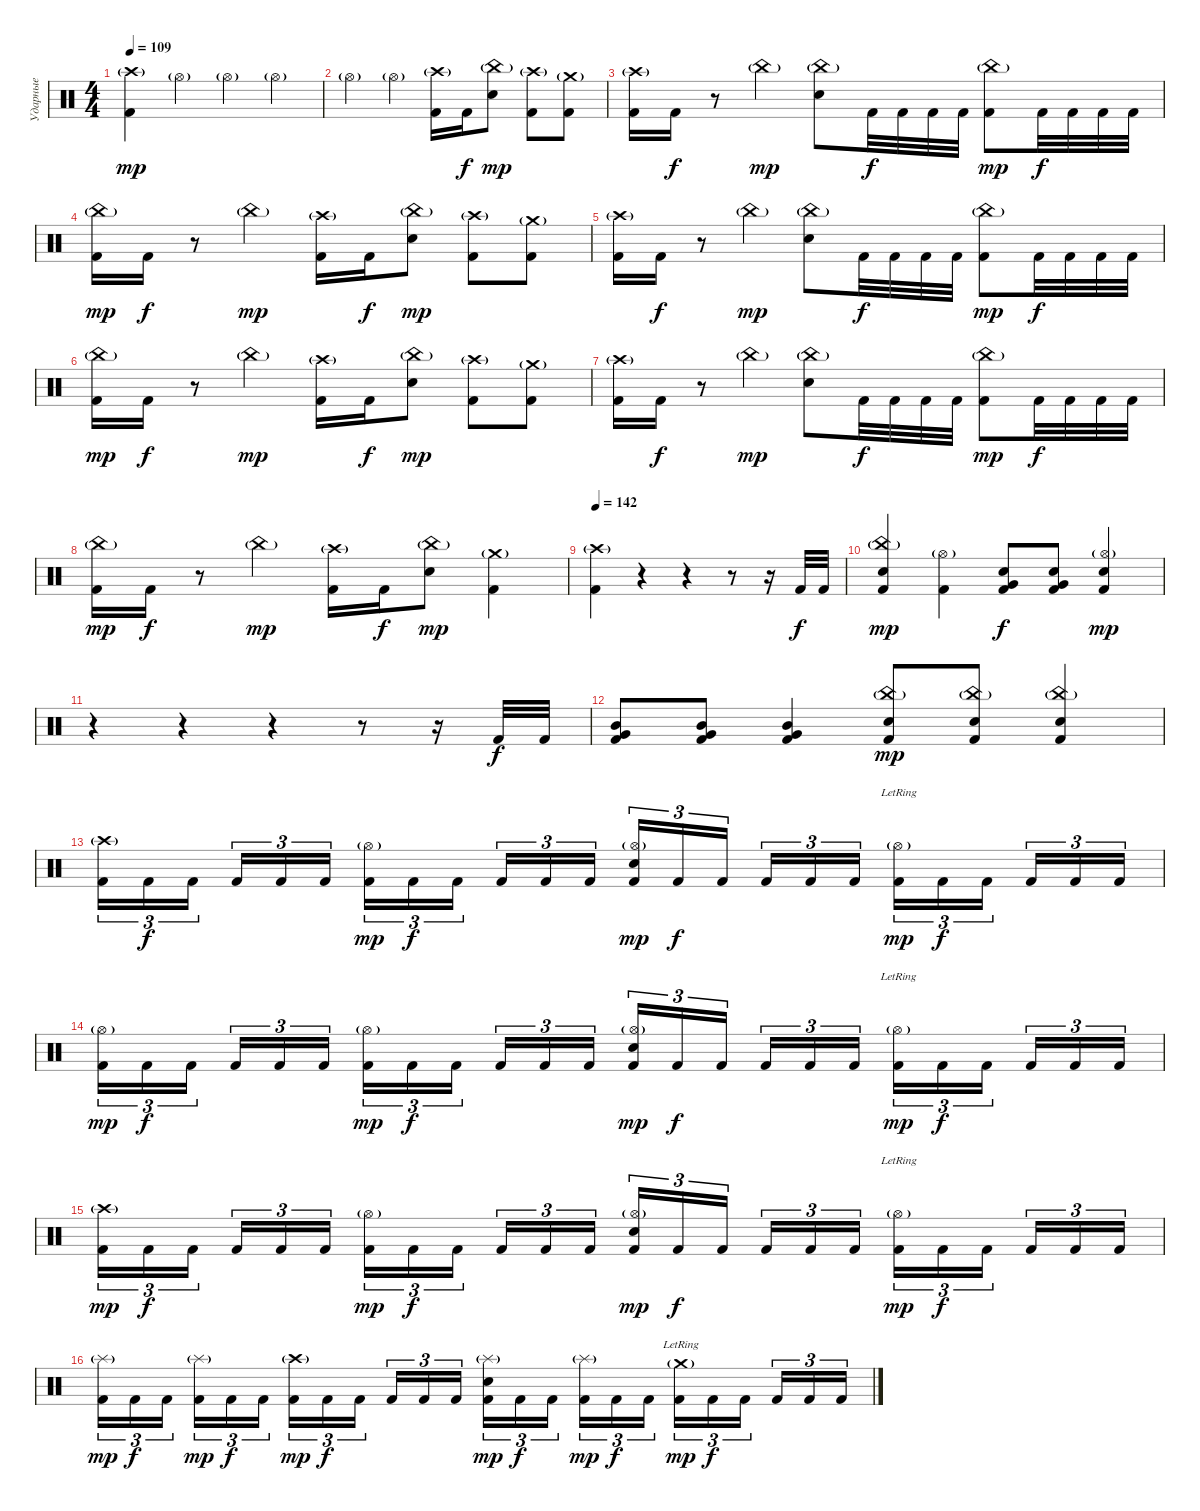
\track ("Ударные" "Ударные") {instrument percussion}
\staff {score}
\articulation defaults
\ts (4 4)
\tempo 109
\clef neutral
\ks c
("Crash high (hit)"{g} "Kick (hit) 2").4{dy mp} "Hi-Hat (open)"{g}.4 "Hi-Hat (open)"{g}.4 "Hi-Hat (open)"{g}.4 |
"Hi-Hat (open)"{g}.4 "Hi-Hat (open)"{g}.4 ("Crash high (hit)"{g} "Kick (hit) 2").16 "Kick (hit) 2".16{dy f} ("China (hit)"{g} "Electric Snare (hit)").8{dy mp} ("Crash high (hit)"{g} "Kick (hit) 2").8 ("Crash medium (hit)"{g} "Kick (hit) 2").8 |
("Crash high (hit)"{g} "Kick (hit) 2").16 "Kick (hit) 2".16{dy f} r.8 "China (hit)"{g}.4{dy mp} ("China (hit)"{g} "Electric Snare (hit)").8 "Kick (hit) 2".32{dy f} "Kick (hit) 2".32 "Kick (hit) 2".32 "Kick (hit) 2".32 ("China (hit)"{g} "Kick (hit) 2").8{dy mp} "Kick (hit) 2".32{dy f} "Kick (hit) 2".32 "Kick (hit) 2".32 "Kick (hit) 2".32 |
("China (hit)"{g} "Kick (hit) 2").16{dy mp} "Kick (hit) 2".16{dy f} r.8 "China (hit)"{g}.4{dy mp} ("Crash high (hit)"{g} "Kick (hit) 2").16 "Kick (hit) 2".16{dy f} ("China (hit)"{g} "Electric Snare (hit)").8{dy mp} ("Crash high (hit)"{g} "Kick (hit) 2").8 ("Crash medium (hit)"{g} "Kick (hit) 2").8 |
("Crash high (hit)"{g} "Kick (hit) 2").16 "Kick (hit) 2".16{dy f} r.8 "China (hit)"{g}.4{dy mp} ("China (hit)"{g} "Electric Snare (hit)").8 "Kick (hit) 2".32{dy f} "Kick (hit) 2".32 "Kick (hit) 2".32 "Kick (hit) 2".32 ("China (hit)"{g} "Kick (hit) 2").8{dy mp} "Kick (hit) 2".32{dy f} "Kick (hit) 2".32 "Kick (hit) 2".32 "Kick (hit) 2".32 |
("China (hit)"{g} "Kick (hit) 2").16{dy mp} "Kick (hit) 2".16{dy f} r.8 "China (hit)"{g}.4{dy mp} ("Crash high (hit)"{g} "Kick (hit) 2").16 "Kick (hit) 2".16{dy f} ("China (hit)"{g} "Electric Snare (hit)").8{dy mp} ("Crash high (hit)"{g} "Kick (hit) 2").8 ("Crash medium (hit)"{g} "Kick (hit) 2").8 |
("Crash high (hit)"{g} "Kick (hit) 2").16 "Kick (hit) 2".16{dy f} r.8 "China (hit)"{g}.4{dy mp} ("China (hit)"{g} "Electric Snare (hit)").8 "Kick (hit) 2".32{dy f} "Kick (hit) 2".32 "Kick (hit) 2".32 "Kick (hit) 2".32 ("China (hit)"{g} "Kick (hit) 2").8{dy mp} "Kick (hit) 2".32{dy f} "Kick (hit) 2".32 "Kick (hit) 2".32 "Kick (hit) 2".32 |
("China (hit)"{g} "Kick (hit) 2").16{dy mp} "Kick (hit) 2".16{dy f} r.8 "China (hit)"{g}.4{dy mp} ("Crash high (hit)"{g} "Kick (hit) 2").16 "Kick (hit) 2".16{dy f} ("China (hit)"{g} "Electric Snare (hit)").8{dy mp} ("Crash medium (hit)"{g} "Kick (hit) 2").4 |
\tempo 142
("Crash high (hit)"{g} "Kick (hit) 2").4 r.4{volume 0} r.4 r.8 r.16 "Kick (hit) 2".32{dy f volume 16} "Kick (hit) 2".32 |
("China (hit)"{g} "Electric Snare (hit)" "Kick (hit) 2").4{dy mp} ("Hi-Hat (open)"{g} "Kick (hit) 2").4 ("Very Low Tom (hit)" "Electric Snare (hit)" "Kick (hit) 2").8{dy f} ("Very Low Tom (hit)" "Electric Snare (hit)" "Kick (hit) 2").8 ("Hi-Hat (open)"{g} "Electric Snare (hit)" "Kick (hit) 2").4{dy mp} |
r.4 r.4 r.4 r.8 r.16 "Kick (hit) 2".32{dy f} "Kick (hit) 2".32 |
("Very Low Tom (hit)" "Mid Tom (hit)" "Kick (hit) 2").8 ("Very Low Tom (hit)" "Mid Tom (hit)" "Kick (hit) 2").8 ("Very Low Tom (hit)" "Mid Tom (hit)" "Kick (hit) 2").4 ("China (hit)"{g} "Electric Snare (hit)" "Kick (hit) 2").8{dy mp} ("China (hit)"{g} "Electric Snare (hit)" "Kick (hit) 2").8 ("China (hit)"{g} "Electric Snare (hit)" "Kick (hit) 2").4 |
("Crash high (hit)"{g} "Kick (hit) 2").16{tu (3 2)} "Kick (hit) 2".16{tu (3 2) dy f} "Kick (hit) 2".16{tu (3 2)} "Kick (hit) 2".16{tu (3 2)} "Kick (hit) 2".16{tu (3 2)} "Kick (hit) 2".16{tu (3 2)} ("Hi-Hat (open)"{g} "Kick (hit) 2").16{tu (3 2) dy mp} "Kick (hit) 2".16{tu (3 2) dy f} "Kick (hit) 2".16{tu (3 2)} "Kick (hit) 2".16{tu (3 2)} "Kick (hit) 2".16{tu (3 2)} "Kick (hit) 2".16{tu (3 2)} ("Hi-Hat (open)"{g} "Electric Snare (hit)" "Kick (hit) 2").16{tu (3 2) dy mp} "Kick (hit) 2".16{tu (3 2) dy f} "Kick (hit) 2".16{tu (3 2)} "Kick (hit) 2".16{tu (3 2)} "Kick (hit) 2".16{tu (3 2)} "Kick (hit) 2".16{tu (3 2)} ("Hi-Hat (open)"{g lr} "Kick (hit) 2").16{tu (3 2) dy mp} "Kick (hit) 2".16{tu (3 2) dy f} "Kick (hit) 2".16{tu (3 2)} "Kick (hit) 2".16{tu (3 2)} "Kick (hit) 2".16{tu (3 2)} "Kick (hit) 2".16{tu (3 2)} |
("Hi-Hat (open)"{g} "Kick (hit) 2").16{tu (3 2) dy mp} "Kick (hit) 2".16{tu (3 2) dy f} "Kick (hit) 2".16{tu (3 2)} "Kick (hit) 2".16{tu (3 2)} "Kick (hit) 2".16{tu (3 2)} "Kick (hit) 2".16{tu (3 2)} ("Hi-Hat (open)"{g} "Kick (hit) 2").16{tu (3 2) dy mp} "Kick (hit) 2".16{tu (3 2) dy f} "Kick (hit) 2".16{tu (3 2)} "Kick (hit) 2".16{tu (3 2)} "Kick (hit) 2".16{tu (3 2)} "Kick (hit) 2".16{tu (3 2)} ("Hi-Hat (open)"{g} "Electric Snare (hit)" "Kick (hit) 2").16{tu (3 2) dy mp} "Kick (hit) 2".16{tu (3 2) dy f} "Kick (hit) 2".16{tu (3 2)} "Kick (hit) 2".16{tu (3 2)} "Kick (hit) 2".16{tu (3 2)} "Kick (hit) 2".16{tu (3 2)} ("Hi-Hat (open)"{g lr} "Kick (hit) 2").16{tu (3 2) dy mp} "Kick (hit) 2".16{tu (3 2) dy f} "Kick (hit) 2".16{tu (3 2)} "Kick (hit) 2".16{tu (3 2)} "Kick (hit) 2".16{tu (3 2)} "Kick (hit) 2".16{tu (3 2)} |
("Crash high (hit)"{g} "Kick (hit) 2").16{tu (3 2) dy mp} "Kick (hit) 2".16{tu (3 2) dy f} "Kick (hit) 2".16{tu (3 2)} "Kick (hit) 2".16{tu (3 2)} "Kick (hit) 2".16{tu (3 2)} "Kick (hit) 2".16{tu (3 2)} ("Hi-Hat (open)"{g} "Kick (hit) 2").16{tu (3 2) dy mp} "Kick (hit) 2".16{tu (3 2) dy f} "Kick (hit) 2".16{tu (3 2)} "Kick (hit) 2".16{tu (3 2)} "Kick (hit) 2".16{tu (3 2)} "Kick (hit) 2".16{tu (3 2)} ("Hi-Hat (open)"{g} "Electric Snare (hit)" "Kick (hit) 2").16{tu (3 2) dy mp} "Kick (hit) 2".16{tu (3 2) dy f} "Kick (hit) 2".16{tu (3 2)} "Kick (hit) 2".16{tu (3 2)} "Kick (hit) 2".16{tu (3 2)} "Kick (hit) 2".16{tu (3 2)} ("Hi-Hat (open)"{g lr} "Kick (hit) 2").16{tu (3 2) dy mp} "Kick (hit) 2".16{tu (3 2) dy f} "Kick (hit) 2".16{tu (3 2)} "Kick (hit) 2".16{tu (3 2)} "Kick (hit) 2".16{tu (3 2)} "Kick (hit) 2".16{tu (3 2)} |
("Splash (hit)"{g} "Kick (hit) 2").16{tu (3 2) dy mp} "Kick (hit) 2".16{tu (3 2) dy f} "Kick (hit) 2".16{tu (3 2)} ("Splash (hit)"{g} "Kick (hit) 2").16{tu (3 2) dy mp} "Kick (hit) 2".16{tu (3 2) dy f} "Kick (hit) 2".16{tu (3 2)} ("Crash high (hit)"{g} "Kick (hit) 2").16{tu (3 2) dy mp} "Kick (hit) 2".16{tu (3 2) dy f} "Kick (hit) 2".16{tu (3 2)} "Kick (hit) 2".16{tu (3 2)} "Kick (hit) 2".16{tu (3 2)} "Kick (hit) 2".16{tu (3 2)} ("Splash (hit)"{g} "Electric Snare (hit)" "Kick (hit) 2").16{tu (3 2) dy mp} "Kick (hit) 2".16{tu (3 2) dy f} "Kick (hit) 2".16{tu (3 2)} ("Splash (hit)"{g} "Kick (hit) 2").16{tu (3 2) dy mp} "Kick (hit) 2".16{tu (3 2) dy f} "Kick (hit) 2".16{tu (3 2)} ("Crash medium (hit)"{g lr} "Kick (hit) 2").16{tu (3 2) dy mp} "Kick (hit) 2".16{tu (3 2) dy f} "Kick (hit) 2".16{tu (3 2)} "Kick (hit) 2".16{tu (3 2)} "Kick (hit) 2".16{tu (3 2)} "Kick (hit) 2".16{tu (3 2)}
